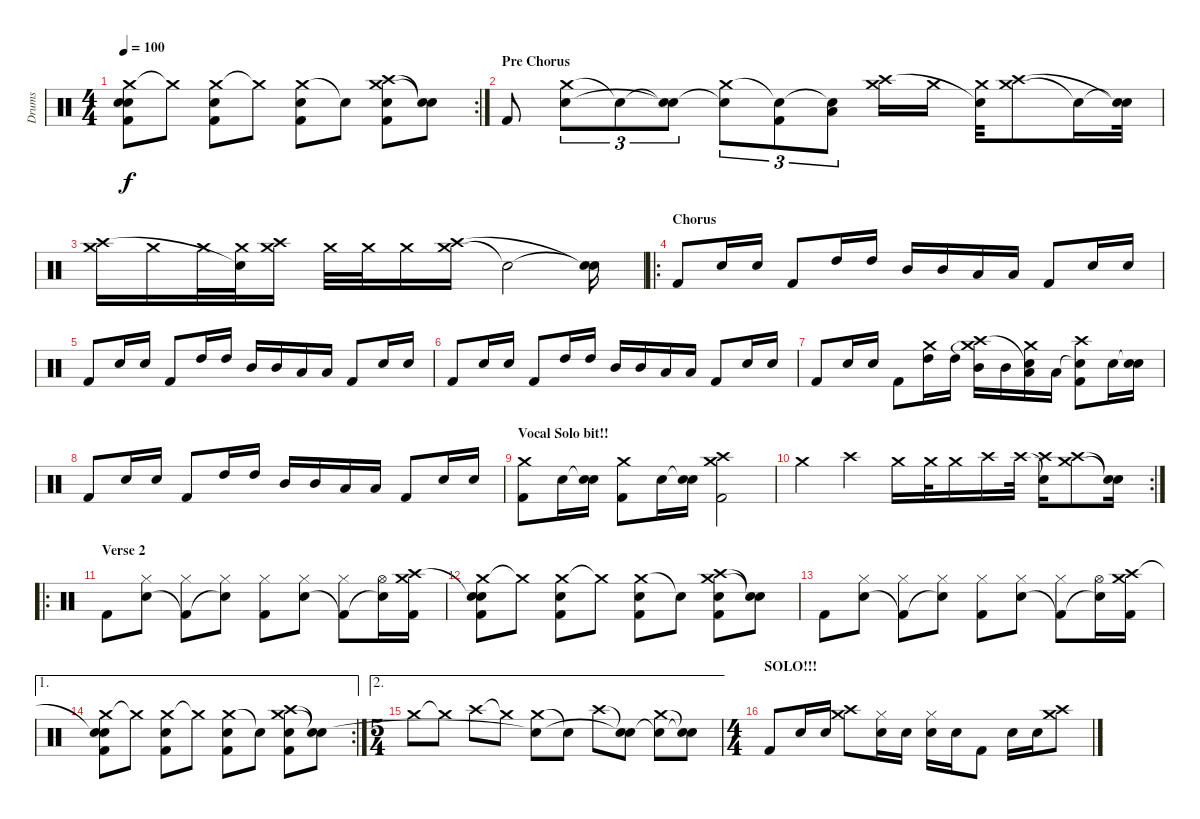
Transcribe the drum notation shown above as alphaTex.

\track ("Drums" "Drums") {instrument percussion}
\staff {score}
\articulation defaults
\rc 2
\ts (4 4)
\tempo 100
\clef neutral
\ks c
("Crash medium (hit)" "Snare (hit)"{t} "Snare (hit) 2" "Kick (hit) 2").8{dy f} "Crash medium (hit)"{t}.8 ("Crash medium (hit)" "Snare (hit) 2" "Kick (hit) 2").8 "Crash medium (hit)"{t}.8 ("Crash medium (hit)" "Snare (hit) 2" "Kick (hit) 2").8 "Snare (hit)"{t}.8 ("Crash medium (hit)" "Crash high (hit)" "Snare (hit) 2" "Kick (hit) 2").8 ("Snare (hit)"{t} "Snare (hit)"{t}).8 |
\section ("" "Pre Chorus")
"Kick (hit) 2".8 ("Crash medium (hit)" "Snare (hit) 2").8{tu (3 2)} "Snare (hit) 2"{t}.8{tu (3 2)} ("Snare (hit)"{t} "Snare (hit) 2"{t}).8{tu (3 2)} ("Crash medium (hit)" "Snare (hit) 2"{t}).8{tu (3 2)} ("Snare (hit) 2"{t} "Kick (hit) 2").8{tu (3 2)} ("Snare (hit)"{t} "Low Floor Tom (hit)").8{tu (3 2)} ("Crash medium (hit)" "Crash high (hit)").16 "Crash medium (hit)".16 ("Crash medium (hit)" "Snare (hit)"{t}).32 ("Crash medium (hit)" "Crash high (hit)").8 "Snare (hit)"{t}.16 ("Snare (hit)"{t} "Snare (hit)"{t}).32 |
("Crash medium (hit)" "Crash high (hit)").16 "Crash medium (hit)".16 "Crash medium (hit)".32 ("Crash medium (hit)" "Snare (hit)"{t}).32 ("Crash medium (hit)" "Crash high (hit)").16 "Crash medium (hit)".32 "Crash medium (hit)".32 "Crash medium (hit)".16 ("Crash medium (hit)" "Crash high (hit)").16 "Snare (hit)"{t}.2 ("Snare (hit)"{t} "Snare (hit)"{t}).16 |
\ro
\section ("" "Chorus")
"Kick (hit) 2".8 "Snare (hit) 2".16 "Snare (hit) 2".16 "Kick (hit) 2".8 "High Tom (hit)".16 "High Tom (hit)".16 "Mid Tom (hit)".16 "Mid Tom (hit)".16 "Low Floor Tom (hit)".16 "Low Floor Tom (hit)".16 "Kick (hit) 2".8 "Snare (hit) 2".16 "Snare (hit) 2".16 |
"Kick (hit) 2".8 "Snare (hit) 2".16 "Snare (hit) 2".16 "Kick (hit) 2".8 "High Tom (hit)".16 "High Tom (hit)".16 "Mid Tom (hit)".16 "Mid Tom (hit)".16 "Low Floor Tom (hit)".16 "Low Floor Tom (hit)".16 "Kick (hit) 2".8 "Snare (hit) 2".16 "Snare (hit) 2".16 |
"Kick (hit) 2".8 "Snare (hit) 2".16 "Snare (hit) 2".16 "Kick (hit) 2".8 "High Tom (hit)".16 "High Tom (hit)".16 "Mid Tom (hit)".16 "Mid Tom (hit)".16 "Low Floor Tom (hit)".16 "Low Floor Tom (hit)".16 "Kick (hit) 2".8 "Snare (hit) 2".16 "Snare (hit) 2".16 |
"Kick (hit) 2".8 "Snare (hit) 2".16 "Snare (hit) 2".16 "Kick (hit) 2".8 ("Crash medium (hit)" "High Tom (hit)").16 "High Tom (hit)".16 ("Crash medium (hit)"{t} "Crash high (hit)" "Mid Tom (hit)").16 "Mid Tom (hit)".16 ("Crash medium (hit)" "Snare (hit)"{t} "Low Floor Tom (hit)").16 "Low Floor Tom (hit)".16 ("Snare (hit)"{t} "Crash high (hit)" "Kick (hit) 2").8 "Snare (hit) 2".16 ("Snare (hit)"{t} "Snare (hit) 2").16 |
"Kick (hit) 2".8 "Snare (hit) 2".16 "Snare (hit) 2".16 "Kick (hit) 2".8 "High Tom (hit)".16 "High Tom (hit)".16 "Mid Tom (hit)".16 "Mid Tom (hit)".16 "Low Floor Tom (hit)".16 "Low Floor Tom (hit)".16 "Kick (hit) 2".8 "Snare (hit) 2".16 "Snare (hit) 2".16 |
\section ("" "Vocal Solo bit!!")
("Crash medium (hit)" "Kick (hit) 2").8 "Snare (hit) 2".16 ("Snare (hit)"{t} "Snare (hit) 2").16 ("Crash medium (hit)" "Kick (hit) 2").8 "Snare (hit) 2".16 ("Snare (hit)"{t} "Snare (hit) 2").16 ("Crash medium (hit)" "Crash high (hit)" "Kick (hit) 2").2 |
\rc 2 "Crash medium (hit)".4 "Crash high (hit)".4 "Crash medium (hit)".16 "Crash medium (hit)".32 "Crash medium (hit)".16 "Crash high (hit)".16 "Crash high (hit)".32
("Snare (hit)"{t} "Crash high (hit)").16 ("Crash medium (hit)" "Crash high (hit)").8 ("Snare (hit)"{t} "Snare (hit)"{t}).16 |
\ro
\section ("" "Verse 2")
"Kick (hit) 2".8 ("Hi-Hat (closed)" "Snare (hit) 2").8 ("Hi-Hat (closed)" "Kick (hit) 2"{t}).8 ("Hi-Hat (closed)" "Snare (hit) 2"{t}).8 ("Hi-Hat (closed)" "Kick (hit) 2").8 ("Hi-Hat (closed)" "Snare (hit) 2").8 ("Hi-Hat (closed)" "Kick (hit) 2"{t}).8 ("Hi-Hat (open)" "Snare (hit) 2"{t}).16 ("Crash medium (hit)" "Crash high (hit)" "Kick (hit) 2").16 |
("Crash medium (hit)" "Snare (hit)"{t} "Snare (hit) 2" "Kick (hit) 2").8 "Crash medium (hit)"{t}.8 ("Crash medium (hit)" "Snare (hit) 2" "Kick (hit) 2").8 "Crash medium (hit)"{t}.8 ("Crash medium (hit)" "Snare (hit) 2" "Kick (hit) 2").8 "Snare (hit)"{t}.8 ("Crash medium (hit)" "Crash high (hit)" "Snare (hit) 2" "Kick (hit) 2").8 ("Snare (hit)"{t} "Snare (hit)"{t}).8 |
"Kick (hit) 2".8 ("Hi-Hat (closed)" "Snare (hit) 2").8 ("Hi-Hat (closed)" "Kick (hit) 2"{t}).8 ("Hi-Hat (closed)" "Snare (hit) 2"{t}).8 ("Hi-Hat (closed)" "Kick (hit) 2").8 ("Hi-Hat (closed)" "Snare (hit) 2").8 ("Hi-Hat (closed)" "Kick (hit) 2"{t}).8 ("Hi-Hat (open)" "Snare (hit) 2"{t}).16 ("Crash medium (hit)" "Crash high (hit)" "Kick (hit) 2").16 |
\ae 1
\rc 2
("Crash medium (hit)" "Snare (hit)"{t} "Snare (hit) 2" "Kick (hit) 2").8 "Crash medium (hit)"{t}.8 ("Crash medium (hit)" "Snare (hit) 2" "Kick (hit) 2").8 "Crash medium (hit)"{t}.8 ("Crash medium (hit)" "Snare (hit) 2" "Kick (hit) 2").8 "Snare (hit)"{t}.8 ("Crash medium (hit)" "Crash high (hit)" "Snare (hit) 2" "Kick (hit) 2").8 ("Snare (hit)"{t} "Snare (hit)"{t}).8 |
\ae 2
\ts (5 4)
"Crash medium (hit)".8 "Crash medium (hit)"{t}.8 "Crash high (hit)".8 "Crash medium (hit)"{t}.8 ("Crash medium (hit)" "Snare (hit)"{t}).8 "Snare (hit)"{t}.8 "Crash high (hit)".8 ("Snare (hit)"{t} "Snare (hit)"{t}).8 ("Crash medium (hit)" "Snare (hit)"{t}).8 ("Snare (hit)"{t} "Snare (hit)"{t}).8 |
\ts (4 4)
\section ("" "SOLO!!!")
"Kick (hit) 2".8 "Snare (hit) 2".16 "Snare (hit) 2".16 ("Crash medium (hit)" "Crash high (hit)").8 ("Hi-Hat (closed)" "Snare (hit) 2").16 "Snare (hit) 2".16 ("Hi-Hat (closed)" "Snare (hit) 2").16 "Snare (hit) 2".16 "Kick (hit) 2".8 "Snare (hit) 2".16 "Snare (hit) 2".16 ("Crash medium (hit)" "Crash high (hit)").8
